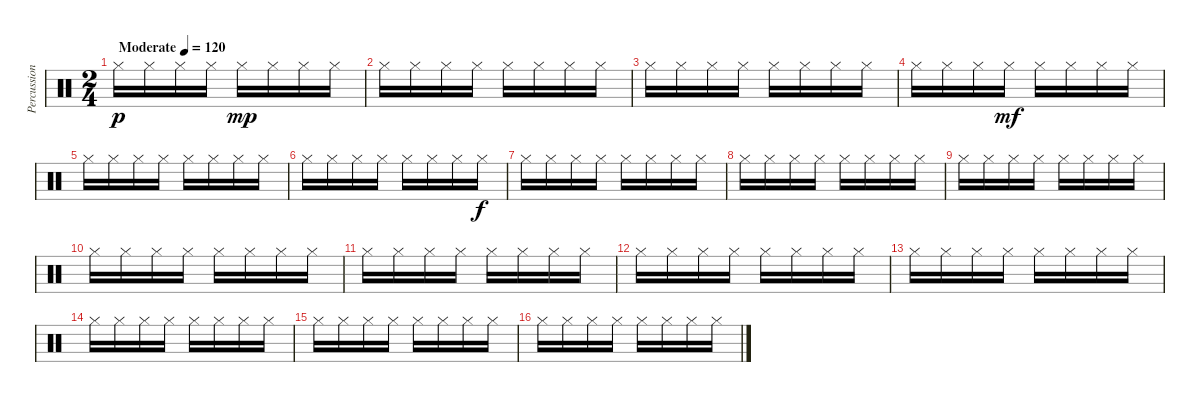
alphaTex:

\track ("Percussion" "Percussion") {instrument percussion}
\staff {score}
\articulation defaults
\ts (2 4)
\tempo (120 "Moderate")
\clef neutral
\ks c "Hi-Hat (closed)".16{dy p} "Hi-Hat (closed)".16 "Hi-Hat (closed)".16 "Hi-Hat (closed)".16 "Hi-Hat (closed)".16{dy mp} "Hi-Hat (closed)".16 "Hi-Hat (closed)".16 "Hi-Hat (closed)".16
|
"Hi-Hat (closed)".16 "Hi-Hat (closed)".16 "Hi-Hat (closed)".16 "Hi-Hat (closed)".16 "Hi-Hat (closed)".16 "Hi-Hat (closed)".16 "Hi-Hat (closed)".16 "Hi-Hat (closed)".16 |
"Hi-Hat (closed)".16 "Hi-Hat (closed)".16 "Hi-Hat (closed)".16 "Hi-Hat (closed)".16 "Hi-Hat (closed)".16 "Hi-Hat (closed)".16 "Hi-Hat (closed)".16 "Hi-Hat (closed)".16 |
"Hi-Hat (closed)".16 "Hi-Hat (closed)".16 "Hi-Hat (closed)".16 "Hi-Hat (closed)".16{dy mf} "Hi-Hat (closed)".16 "Hi-Hat (closed)".16 "Hi-Hat (closed)".16 "Hi-Hat (closed)".16 |
"Hi-Hat (closed)".16 "Hi-Hat (closed)".16 "Hi-Hat (closed)".16 "Hi-Hat (closed)".16 "Hi-Hat (closed)".16 "Hi-Hat (closed)".16 "Hi-Hat (closed)".16 "Hi-Hat (closed)".16 |
"Hi-Hat (closed)".16 "Hi-Hat (closed)".16 "Hi-Hat (closed)".16 "Hi-Hat (closed)".16 "Hi-Hat (closed)".16 "Hi-Hat (closed)".16 "Hi-Hat (closed)".16 "Hi-Hat (closed)".16{dy f} |
"Hi-Hat (closed)".16 "Hi-Hat (closed)".16 "Hi-Hat (closed)".16 "Hi-Hat (closed)".16 "Hi-Hat (closed)".16 "Hi-Hat (closed)".16 "Hi-Hat (closed)".16 "Hi-Hat (closed)".16 |
"Hi-Hat (closed)".16 "Hi-Hat (closed)".16 "Hi-Hat (closed)".16 "Hi-Hat (closed)".16 "Hi-Hat (closed)".16 "Hi-Hat (closed)".16 "Hi-Hat (closed)".16 "Hi-Hat (closed)".16 |
"Hi-Hat (closed)".16 "Hi-Hat (closed)".16 "Hi-Hat (closed)".16 "Hi-Hat (closed)".16 "Hi-Hat (closed)".16 "Hi-Hat (closed)".16 "Hi-Hat (closed)".16 "Hi-Hat (closed)".16 |
"Hi-Hat (closed)".16 "Hi-Hat (closed)".16 "Hi-Hat (closed)".16 "Hi-Hat (closed)".16 "Hi-Hat (closed)".16 "Hi-Hat (closed)".16 "Hi-Hat (closed)".16 "Hi-Hat (closed)".16 |
"Hi-Hat (closed)".16 "Hi-Hat (closed)".16 "Hi-Hat (closed)".16 "Hi-Hat (closed)".16 "Hi-Hat (closed)".16 "Hi-Hat (closed)".16 "Hi-Hat (closed)".16 "Hi-Hat (closed)".16 |
"Hi-Hat (closed)".16 "Hi-Hat (closed)".16 "Hi-Hat (closed)".16 "Hi-Hat (closed)".16 "Hi-Hat (closed)".16 "Hi-Hat (closed)".16 "Hi-Hat (closed)".16 "Hi-Hat (closed)".16 |
"Hi-Hat (closed)".16 "Hi-Hat (closed)".16 "Hi-Hat (closed)".16 "Hi-Hat (closed)".16 "Hi-Hat (closed)".16 "Hi-Hat (closed)".16 "Hi-Hat (closed)".16 "Hi-Hat (closed)".16 |
"Hi-Hat (closed)".16 "Hi-Hat (closed)".16 "Hi-Hat (closed)".16 "Hi-Hat (closed)".16 "Hi-Hat (closed)".16 "Hi-Hat (closed)".16 "Hi-Hat (closed)".16 "Hi-Hat (closed)".16 |
"Hi-Hat (closed)".16 "Hi-Hat (closed)".16 "Hi-Hat (closed)".16 "Hi-Hat (closed)".16 "Hi-Hat (closed)".16 "Hi-Hat (closed)".16 "Hi-Hat (closed)".16 "Hi-Hat (closed)".16 |
"Hi-Hat (closed)".16 "Hi-Hat (closed)".16 "Hi-Hat (closed)".16 "Hi-Hat (closed)".16 "Hi-Hat (closed)".16 "Hi-Hat (closed)".16 "Hi-Hat (closed)".16 "Hi-Hat (closed)".16
